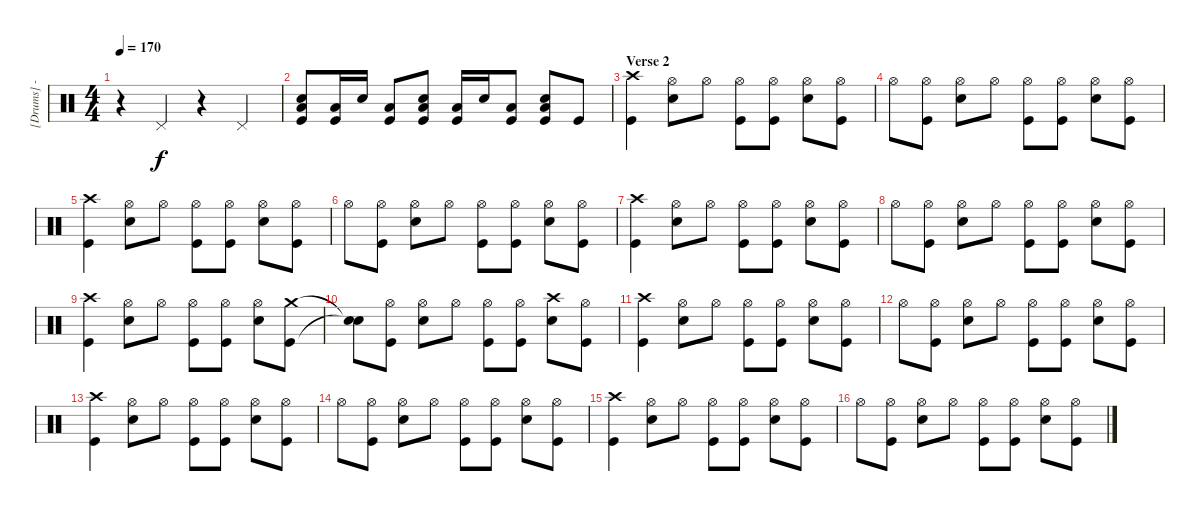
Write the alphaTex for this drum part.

\track ("[Drums] - Trè Cool" "[Drums] - ") {instrument percussion}
\staff {score}
\articulation defaults
\ts (4 4)
\tempo 170
\clef neutral
\ks c
r.4{dy f} "Pedal Hi-Hat (hit)".4 r.4 "Pedal Hi-Hat (hit)".4 |
("Kick (hit)" "Snare (hit) 2" "Low Floor Tom (hit)").8 ("Kick (hit)" "Low Floor Tom (hit)").16 "Snare (hit) 2".16 ("Kick (hit)" "Low Floor Tom (hit)").8 ("Kick (hit)" "Snare (hit) 2" "Low Floor Tom (hit)").8 ("Kick (hit)" "Low Floor Tom (hit)").16 "Snare (hit) 2".16 ("Kick (hit)" "Low Floor Tom (hit)").8 ("Kick (hit)" "Snare (hit) 2" "Low Floor Tom (hit)").8 "Kick (hit)".8 |
\section ("" "Verse 2")
("Kick (hit)" "Crash high (hit)").4 ("Snare (hit) 2" "Hi-Hat (open)").8 "Hi-Hat (open)".8 ("Kick (hit)" "Hi-Hat (open)").8 ("Kick (hit)" "Hi-Hat (open)").8 ("Snare (hit) 2" "Hi-Hat (open)").8 ("Kick (hit)" "Hi-Hat (open)").8 |
"Hi-Hat (open)".8 ("Kick (hit)" "Hi-Hat (open)").8 ("Snare (hit) 2" "Hi-Hat (open)").8 "Hi-Hat (open)".8 ("Kick (hit)" "Hi-Hat (open)").8 ("Kick (hit)" "Hi-Hat (open)").8 ("Snare (hit) 2" "Hi-Hat (open)").8 ("Kick (hit)" "Hi-Hat (open)").8 |
("Kick (hit)" "Crash high (hit)").4 ("Snare (hit) 2" "Hi-Hat (open)").8 "Hi-Hat (open)".8 ("Kick (hit)" "Hi-Hat (open)").8 ("Kick (hit)" "Hi-Hat (open)").8 ("Snare (hit) 2" "Hi-Hat (open)").8 ("Kick (hit)" "Hi-Hat (open)").8 |
"Hi-Hat (open)".8 ("Kick (hit)" "Hi-Hat (open)").8 ("Snare (hit) 2" "Hi-Hat (open)").8 "Hi-Hat (open)".8 ("Kick (hit)" "Hi-Hat (open)").8 ("Kick (hit)" "Hi-Hat (open)").8 ("Snare (hit) 2" "Hi-Hat (open)").8 ("Kick (hit)" "Hi-Hat (open)").8 |
("Kick (hit)" "Crash high (hit)").4 ("Snare (hit) 2" "Hi-Hat (open)").8 "Hi-Hat (open)".8 ("Kick (hit)" "Hi-Hat (open)").8 ("Kick (hit)" "Hi-Hat (open)").8 ("Snare (hit) 2" "Hi-Hat (open)").8 ("Kick (hit)" "Hi-Hat (open)").8 |
"Hi-Hat (open)".8 ("Kick (hit)" "Hi-Hat (open)").8 ("Snare (hit) 2" "Hi-Hat (open)").8 "Hi-Hat (open)".8 ("Kick (hit)" "Hi-Hat (open)").8 ("Kick (hit)" "Hi-Hat (open)").8 ("Snare (hit) 2" "Hi-Hat (open)").8 ("Kick (hit)" "Hi-Hat (open)").8 |
("Kick (hit)" "Crash high (hit)").4 ("Snare (hit) 2" "Hi-Hat (open)").8 "Hi-Hat (open)".8 ("Hi-Hat (open)" "Kick (hit)").8 ("Kick (hit)" "Hi-Hat (open)").8 ("Snare (hit) 2" "Hi-Hat (open)").8 ("Kick (hit)" "Crash medium (hit)").8 |
("Snare (hit)"{t} "Snare (hit)"{t}).8 ("Kick (hit)" "Hi-Hat (open)").8 ("Snare (hit) 2" "Hi-Hat (open)").8 "Hi-Hat (open)".8 ("Kick (hit)" "Hi-Hat (open)").8 ("Kick (hit)" "Hi-Hat (open)").8 ("Snare (hit) 2" "Crash high (hit)").8 ("Kick (hit)" "Hi-Hat (open)").8 |
("Kick (hit)" "Crash high (hit)").4 ("Snare (hit) 2" "Hi-Hat (open)").8 "Hi-Hat (open)".8 ("Kick (hit)" "Hi-Hat (open)").8 ("Kick (hit)" "Hi-Hat (open)").8 ("Snare (hit) 2" "Hi-Hat (open)").8 ("Kick (hit)" "Hi-Hat (open)").8 |
"Hi-Hat (open)".8 ("Kick (hit)" "Hi-Hat (open)").8 ("Snare (hit) 2" "Hi-Hat (open)").8 "Hi-Hat (open)".8 ("Kick (hit)" "Hi-Hat (open)").8 ("Kick (hit)" "Hi-Hat (open)").8 ("Snare (hit) 2" "Hi-Hat (open)").8 ("Kick (hit)" "Hi-Hat (open)").8 |
("Kick (hit)" "Crash high (hit)").4 ("Snare (hit) 2" "Hi-Hat (open)").8 "Hi-Hat (open)".8 ("Kick (hit)" "Hi-Hat (open)").8 ("Kick (hit)" "Hi-Hat (open)").8 ("Snare (hit) 2" "Hi-Hat (open)").8 ("Kick (hit)" "Hi-Hat (open)").8 |
"Hi-Hat (open)".8 ("Kick (hit)" "Hi-Hat (open)").8 ("Snare (hit) 2" "Hi-Hat (open)").8 "Hi-Hat (open)".8 ("Kick (hit)" "Hi-Hat (open)").8 ("Kick (hit)" "Hi-Hat (open)").8 ("Snare (hit) 2" "Hi-Hat (open)").8 ("Kick (hit)" "Hi-Hat (open)").8 |
("Kick (hit)" "Crash high (hit)").4 ("Snare (hit) 2" "Hi-Hat (open)").8 "Hi-Hat (open)".8 ("Kick (hit)" "Hi-Hat (open)").8 ("Kick (hit)" "Hi-Hat (open)").8 ("Snare (hit) 2" "Hi-Hat (open)").8 ("Kick (hit)" "Hi-Hat (open)").8 |
"Hi-Hat (open)".8 ("Kick (hit)" "Hi-Hat (open)").8 ("Snare (hit) 2" "Hi-Hat (open)").8 "Hi-Hat (open)".8 ("Kick (hit)" "Hi-Hat (open)").8 ("Kick (hit)" "Hi-Hat (open)").8 ("Snare (hit) 2" "Hi-Hat (open)").8 ("Kick (hit)" "Hi-Hat (open)").8
